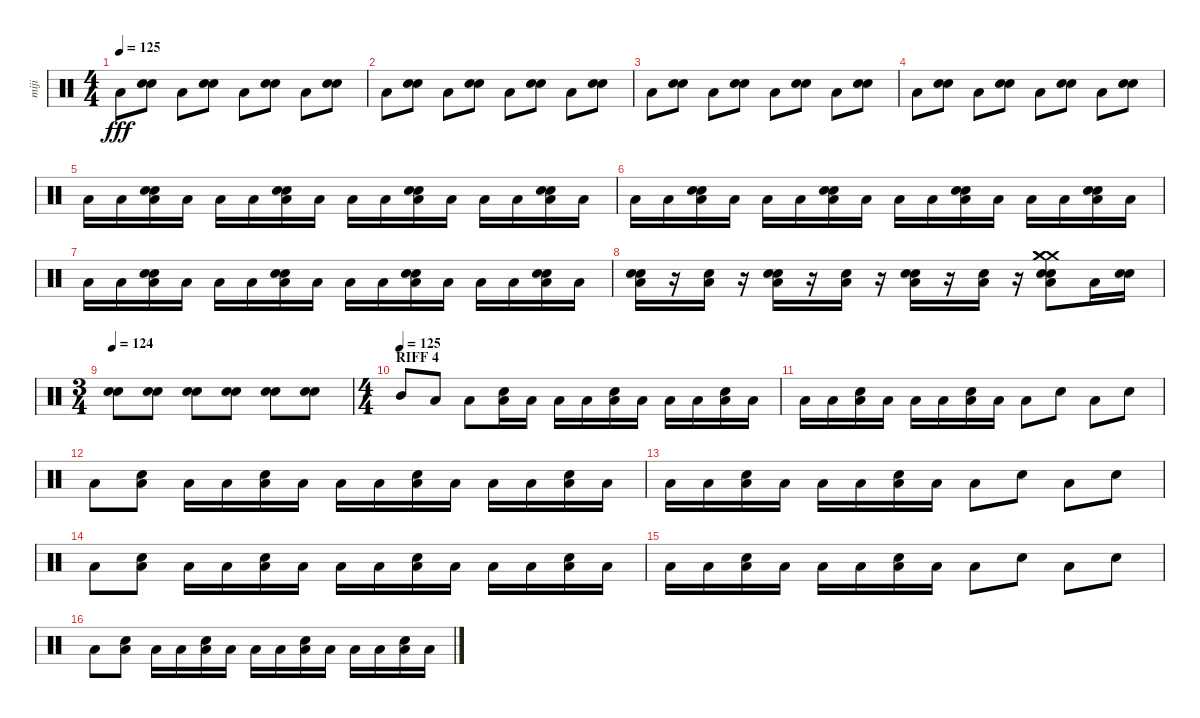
\track ("miji" "miji") {instrument percussion}
\staff {score}
\articulation defaults
\ts (4 4)
\tempo 125
\clef neutral
\ks c "Low Floor Tom (hit)".8{dy fff}
("Electric Snare (hit)" "Electric Snare (hit)").8 "Low Floor Tom (hit)".8 ("Electric Snare (hit)" "Electric Snare (hit)").8 "Low Floor Tom (hit)".8 ("Electric Snare (hit)" "Electric Snare (hit)").8 "Low Floor Tom (hit)".8 ("Electric Snare (hit)" "Electric Snare (hit)").8 |
"Low Floor Tom (hit)".8 ("Electric Snare (hit)" "Electric Snare (hit)").8 "Low Floor Tom (hit)".8 ("Electric Snare (hit)" "Electric Snare (hit)").8 "Low Floor Tom (hit)".8 ("Electric Snare (hit)" "Electric Snare (hit)").8 "Low Floor Tom (hit)".8 ("Electric Snare (hit)" "Electric Snare (hit)").8 |
"Low Floor Tom (hit)".8 ("Electric Snare (hit)" "Electric Snare (hit)").8 "Low Floor Tom (hit)".8 ("Electric Snare (hit)" "Electric Snare (hit)").8 "Low Floor Tom (hit)".8 ("Electric Snare (hit)" "Electric Snare (hit)").8 "Low Floor Tom (hit)".8 ("Electric Snare (hit)" "Electric Snare (hit)").8 |
"Low Floor Tom (hit)".8 ("Electric Snare (hit)" "Electric Snare (hit)").8 "Low Floor Tom (hit)".8 ("Electric Snare (hit)" "Electric Snare (hit)").8 "Low Floor Tom (hit)".8 ("Electric Snare (hit)" "Electric Snare (hit)").8 "Low Floor Tom (hit)".8 ("Electric Snare (hit)" "Electric Snare (hit)").8 |
"Low Floor Tom (hit)".16 "Low Floor Tom (hit)".16 ("Low Floor Tom (hit)" "Electric Snare (hit)" "Electric Snare (hit)").16 "Low Floor Tom (hit)".16 "Low Floor Tom (hit)".16 "Low Floor Tom (hit)".16 ("Low Floor Tom (hit)" "Electric Snare (hit)" "Electric Snare (hit)").16 "Low Floor Tom (hit)".16 "Low Floor Tom (hit)".16 "Low Floor Tom (hit)".16 ("Low Floor Tom (hit)" "Electric Snare (hit)" "Electric Snare (hit)").16 "Low Floor Tom (hit)".16 "Low Floor Tom (hit)".16 "Low Floor Tom (hit)".16 ("Low Floor Tom (hit)" "Electric Snare (hit)" "Electric Snare (hit)").16 "Low Floor Tom (hit)".16 |
"Low Floor Tom (hit)".16 "Low Floor Tom (hit)".16 ("Low Floor Tom (hit)" "Electric Snare (hit)" "Electric Snare (hit)").16 "Low Floor Tom (hit)".16 "Low Floor Tom (hit)".16 "Low Floor Tom (hit)".16 ("Low Floor Tom (hit)" "Electric Snare (hit)" "Electric Snare (hit)").16 "Low Floor Tom (hit)".16 "Low Floor Tom (hit)".16 "Low Floor Tom (hit)".16 ("Low Floor Tom (hit)" "Electric Snare (hit)" "Electric Snare (hit)").16 "Low Floor Tom (hit)".16 "Low Floor Tom (hit)".16 "Low Floor Tom (hit)".16 ("Low Floor Tom (hit)" "Electric Snare (hit)" "Electric Snare (hit)").16 "Low Floor Tom (hit)".16 |
"Low Floor Tom (hit)".16 "Low Floor Tom (hit)".16 ("Low Floor Tom (hit)" "Electric Snare (hit)" "Electric Snare (hit)").16 "Low Floor Tom (hit)".16 "Low Floor Tom (hit)".16 "Low Floor Tom (hit)".16 ("Low Floor Tom (hit)" "Electric Snare (hit)" "Electric Snare (hit)").16 "Low Floor Tom (hit)".16 "Low Floor Tom (hit)".16 "Low Floor Tom (hit)".16 ("Low Floor Tom (hit)" "Electric Snare (hit)" "Electric Snare (hit)").16 "Low Floor Tom (hit)".16 "Low Floor Tom (hit)".16 "Low Floor Tom (hit)".16 ("Low Floor Tom (hit)" "Electric Snare (hit)" "Electric Snare (hit)").16 "Low Floor Tom (hit)".16 |
("Low Floor Tom (hit)" "Electric Snare (hit)" "Electric Snare (hit)").16 r.16 ("Low Floor Tom (hit)" "Electric Snare (hit)").16 r.16 ("Low Floor Tom (hit)" "Electric Snare (hit)" "Electric Snare (hit)").16 r.16 ("Low Floor Tom (hit)" "Electric Snare (hit)").16 r.16 ("Low Floor Tom (hit)" "Electric Snare (hit)" "Electric Snare (hit)").16 r.16 ("Low Floor Tom (hit)" "Electric Snare (hit)").16 r.16 ("Low Floor Tom (hit)" "Electric Snare (hit)" "Electric Snare (hit)" "Crash medium (hit)" "Crash medium (hit)" "Crash medium (hit)").8 "Low Floor Tom (hit)".16 ("Electric Snare (hit)" "Electric Snare (hit)").16 |
\ts (3 4)
\tempo 124
("Electric Snare (hit)" "Electric Snare (hit)").8 ("Electric Snare (hit)" "Electric Snare (hit)").8 ("Electric Snare (hit)" "Electric Snare (hit)").8 ("Electric Snare (hit)" "Electric Snare (hit)").8 ("Electric Snare (hit)" "Electric Snare (hit)").8 ("Electric Snare (hit)" "Electric Snare (hit)").8 |
\ts (4 4)
\section ("" "RIFF 4")
\tempo (125)
"Mid Tom (hit)".8 "Low Tom (hit)".8 "Low Tom (hit)".8 ("Low Floor Tom (hit)" "Electric Snare (hit)").16 "Low Floor Tom (hit)".16 "Low Floor Tom (hit)".16 "Low Floor Tom (hit)".16 ("Low Floor Tom (hit)" "Electric Snare (hit)").16 "Low Floor Tom (hit)".16 "Low Floor Tom (hit)".16 "Low Floor Tom (hit)".16 ("Low Floor Tom (hit)" "Electric Snare (hit)").16 "Low Floor Tom (hit)".16 |
"Low Floor Tom (hit)".16 "Low Floor Tom (hit)".16 ("Low Floor Tom (hit)" "Electric Snare (hit)").16 "Low Floor Tom (hit)".16 "Low Floor Tom (hit)".16 "Low Floor Tom (hit)".16 ("Low Floor Tom (hit)" "Electric Snare (hit)").16 "Low Floor Tom (hit)".16 "Low Floor Tom (hit)".8 "Electric Snare (hit)".8 "Low Floor Tom (hit)".8 "Electric Snare (hit)".8 |
"Low Tom (hit)".8 ("Low Tom (hit)" "Electric Snare (hit)").8 "Low Tom (hit)".16 "Low Floor Tom (hit)".16 ("Low Floor Tom (hit)" "Electric Snare (hit)").16 "Low Floor Tom (hit)".16 "Low Floor Tom (hit)".16 "Low Floor Tom (hit)".16 ("Low Floor Tom (hit)" "Electric Snare (hit)").16 "Low Floor Tom (hit)".16 "Low Floor Tom (hit)".16 "Low Floor Tom (hit)".16 ("Low Floor Tom (hit)" "Electric Snare (hit)").16 "Low Floor Tom (hit)".16 |
"Low Floor Tom (hit)".16 "Low Floor Tom (hit)".16 ("Low Floor Tom (hit)" "Electric Snare (hit)").16 "Low Floor Tom (hit)".16 "Low Floor Tom (hit)".16 "Low Floor Tom (hit)".16 ("Low Floor Tom (hit)" "Electric Snare (hit)").16 "Low Floor Tom (hit)".16 "Low Floor Tom (hit)".8 "Electric Snare (hit)".8 "Low Floor Tom (hit)".8 "Electric Snare (hit)".8 |
"Low Tom (hit)".8 ("Low Tom (hit)" "Electric Snare (hit)").8 "Low Tom (hit)".16 "Low Floor Tom (hit)".16 ("Low Floor Tom (hit)" "Electric Snare (hit)").16 "Low Floor Tom (hit)".16 "Low Floor Tom (hit)".16 "Low Floor Tom (hit)".16 ("Low Floor Tom (hit)" "Electric Snare (hit)").16 "Low Floor Tom (hit)".16 "Low Floor Tom (hit)".16 "Low Floor Tom (hit)".16 ("Low Floor Tom (hit)" "Electric Snare (hit)").16 "Low Floor Tom (hit)".16 |
"Low Floor Tom (hit)".16 "Low Floor Tom (hit)".16 ("Low Floor Tom (hit)" "Electric Snare (hit)").16 "Low Floor Tom (hit)".16 "Low Floor Tom (hit)".16 "Low Floor Tom (hit)".16 ("Low Floor Tom (hit)" "Electric Snare (hit)").16 "Low Floor Tom (hit)".16 "Low Floor Tom (hit)".8 "Electric Snare (hit)".8 "Low Floor Tom (hit)".8 "Electric Snare (hit)".8 |
"Low Tom (hit)".8 ("Low Tom (hit)" "Electric Snare (hit)").8 "Low Tom (hit)".16 "Low Floor Tom (hit)".16 ("Low Floor Tom (hit)" "Electric Snare (hit)").16 "Low Floor Tom (hit)".16 "Low Floor Tom (hit)".16 "Low Floor Tom (hit)".16 ("Low Floor Tom (hit)" "Electric Snare (hit)").16 "Low Floor Tom (hit)".16 "Low Floor Tom (hit)".16 "Low Floor Tom (hit)".16 ("Low Floor Tom (hit)" "Electric Snare (hit)").16 "Low Floor Tom (hit)".16
